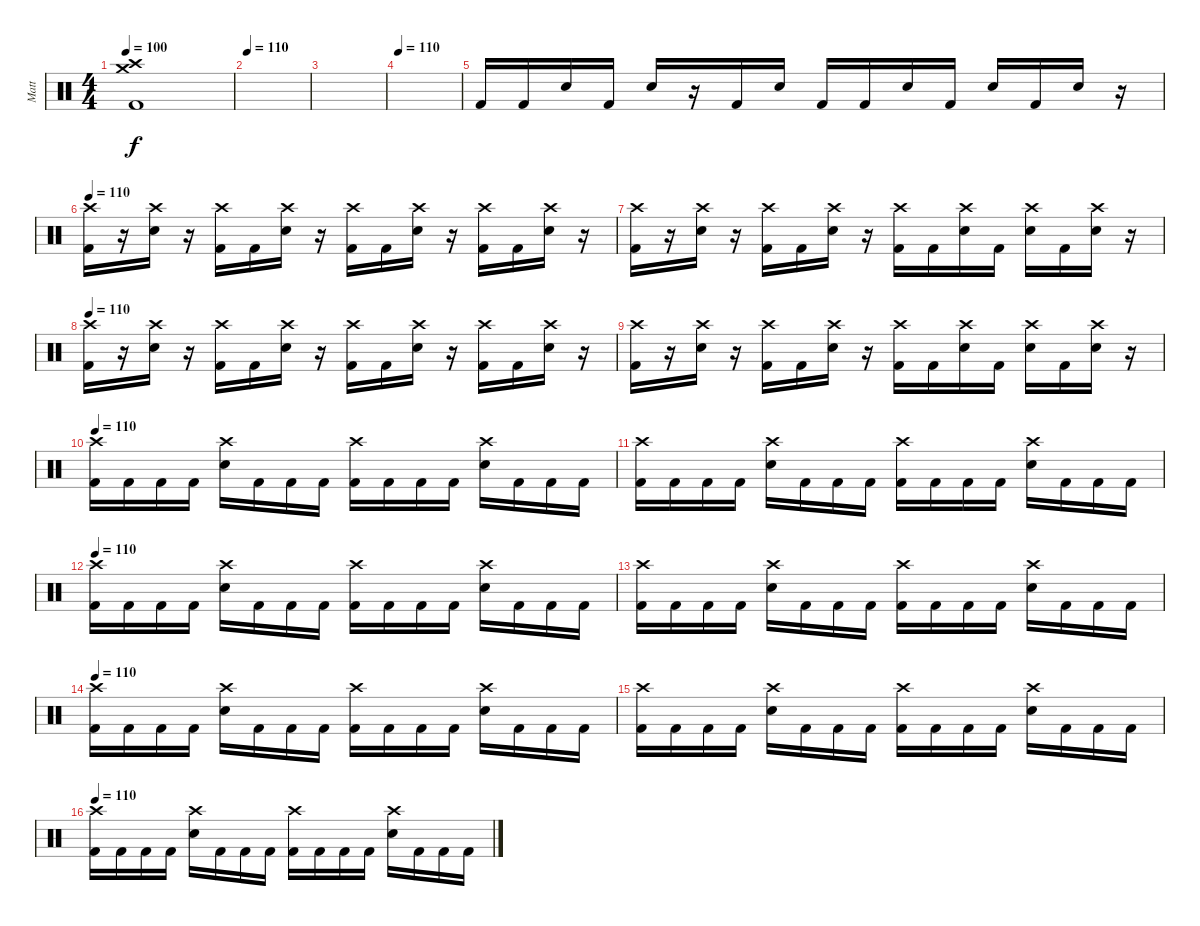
\track ("Matt" "Matt") {instrument percussion}
\staff {score}
\articulation defaults
\ts (4 4)
\tempo 100
\clef neutral
\ks c
("Crash medium (hit)" "Crash high (hit)" "Kick (hit) 2").1{dy f} |
\tempo 110
|
|
\tempo 110
|
"Kick (hit) 2".16 "Kick (hit) 2".16 "Snare (hit) 2".16 "Kick (hit) 2".16 "Snare (hit) 2".16 r.16 "Kick (hit) 2".16 "Snare (hit) 2".16 "Kick (hit) 2".16 "Kick (hit) 2".16 "Snare (hit) 2".16 "Kick (hit) 2".16 "Snare (hit) 2".16 "Kick (hit) 2".16 "Snare (hit) 2".16 r.16 |
\tempo 110
("Crash high (hit)" "Kick (hit) 2").16 r.16 ("Crash high (hit)" "Snare (hit) 2").16 r.16 ("Crash high (hit)" "Kick (hit) 2").16 "Kick (hit) 2".16 ("Crash high (hit)" "Snare (hit) 2").16 r.16 ("Crash high (hit)" "Kick (hit) 2").16 "Kick (hit) 2".16 ("Crash high (hit)" "Snare (hit) 2").16 r.16 ("Crash high (hit)" "Kick (hit) 2").16 "Kick (hit) 2".16 ("Crash high (hit)" "Snare (hit) 2").16 r.16 |
("Crash high (hit)" "Kick (hit) 2").16 r.16 ("Crash high (hit)" "Snare (hit) 2").16 r.16 ("Crash high (hit)" "Kick (hit) 2").16 "Kick (hit) 2".16 ("Crash high (hit)" "Snare (hit) 2").16 r.16 ("Crash high (hit)" "Kick (hit) 2").16 "Kick (hit) 2".16 ("Crash high (hit)" "Snare (hit) 2").16 "Kick (hit) 2".16 ("Crash high (hit)" "Snare (hit) 2").16 "Kick (hit) 2".16 ("Crash high (hit)" "Snare (hit) 2").16 r.16 |
\tempo 110
("Crash high (hit)" "Kick (hit) 2").16 r.16 ("Crash high (hit)" "Snare (hit) 2").16 r.16 ("Crash high (hit)" "Kick (hit) 2").16 "Kick (hit) 2".16 ("Crash high (hit)" "Snare (hit) 2").16 r.16 ("Crash high (hit)" "Kick (hit) 2").16 "Kick (hit) 2".16 ("Crash high (hit)" "Snare (hit) 2").16 r.16 ("Crash high (hit)" "Kick (hit) 2").16 "Kick (hit) 2".16 ("Crash high (hit)" "Snare (hit) 2").16 r.16 |
("Crash high (hit)" "Kick (hit) 2").16 r.16 ("Crash high (hit)" "Snare (hit) 2").16 r.16 ("Crash high (hit)" "Kick (hit) 2").16 "Kick (hit) 2".16 ("Crash high (hit)" "Snare (hit) 2").16 r.16 ("Crash high (hit)" "Kick (hit) 2").16 "Kick (hit) 2".16 ("Crash high (hit)" "Snare (hit) 2").16 "Kick (hit) 2".16 ("Crash high (hit)" "Snare (hit) 2").16 "Kick (hit) 2".16 ("Crash high (hit)" "Snare (hit) 2").16 r.16 |
\tempo 110
("Crash high (hit)" "Kick (hit) 2").16 "Kick (hit) 2".16 "Kick (hit) 2".16 "Kick (hit) 2".16 ("Crash high (hit)" "Snare (hit) 2").16 "Kick (hit) 2".16 "Kick (hit) 2".16 "Kick (hit) 2".16 ("Crash high (hit)" "Kick (hit) 2").16 "Kick (hit) 2".16 "Kick (hit) 2".16 "Kick (hit) 2".16 ("Crash high (hit)" "Snare (hit) 2").16 "Kick (hit) 2".16 "Kick (hit) 2".16 "Kick (hit) 2".16 |
("Crash high (hit)" "Kick (hit) 2").16 "Kick (hit) 2".16 "Kick (hit) 2".16 "Kick (hit) 2".16 ("Crash high (hit)" "Snare (hit) 2").16 "Kick (hit) 2".16 "Kick (hit) 2".16 "Kick (hit) 2".16 ("Crash high (hit)" "Kick (hit) 2").16 "Kick (hit) 2".16 "Kick (hit) 2".16 "Kick (hit) 2".16 ("Crash high (hit)" "Snare (hit) 2").16 "Kick (hit) 2".16 "Kick (hit) 2".16 "Kick (hit) 2".16 |
\tempo 110
("Crash high (hit)" "Kick (hit) 2").16 "Kick (hit) 2".16 "Kick (hit) 2".16 "Kick (hit) 2".16 ("Crash high (hit)" "Snare (hit) 2").16 "Kick (hit) 2".16 "Kick (hit) 2".16 "Kick (hit) 2".16 ("Crash high (hit)" "Kick (hit) 2").16 "Kick (hit) 2".16 "Kick (hit) 2".16 "Kick (hit) 2".16 ("Crash high (hit)" "Snare (hit) 2").16 "Kick (hit) 2".16 "Kick (hit) 2".16 "Kick (hit) 2".16 |
("Crash high (hit)" "Kick (hit) 2").16 "Kick (hit) 2".16 "Kick (hit) 2".16 "Kick (hit) 2".16 ("Crash high (hit)" "Snare (hit) 2").16 "Kick (hit) 2".16 "Kick (hit) 2".16 "Kick (hit) 2".16 ("Crash high (hit)" "Kick (hit) 2").16 "Kick (hit) 2".16 "Kick (hit) 2".16 "Kick (hit) 2".16 ("Crash high (hit)" "Snare (hit) 2").16 "Kick (hit) 2".16 "Kick (hit) 2".16 "Kick (hit) 2".16 |
\tempo 110
("Crash high (hit)" "Kick (hit) 2").16 "Kick (hit) 2".16 "Kick (hit) 2".16 "Kick (hit) 2".16 ("Crash high (hit)" "Snare (hit) 2").16 "Kick (hit) 2".16 "Kick (hit) 2".16 "Kick (hit) 2".16 ("Crash high (hit)" "Kick (hit) 2").16 "Kick (hit) 2".16 "Kick (hit) 2".16 "Kick (hit) 2".16 ("Crash high (hit)" "Snare (hit) 2").16 "Kick (hit) 2".16 "Kick (hit) 2".16 "Kick (hit) 2".16 |
("Crash high (hit)" "Kick (hit) 2").16 "Kick (hit) 2".16 "Kick (hit) 2".16 "Kick (hit) 2".16 ("Crash high (hit)" "Snare (hit) 2").16 "Kick (hit) 2".16 "Kick (hit) 2".16 "Kick (hit) 2".16 ("Crash high (hit)" "Kick (hit) 2").16 "Kick (hit) 2".16 "Kick (hit) 2".16 "Kick (hit) 2".16 ("Crash high (hit)" "Snare (hit) 2").16 "Kick (hit) 2".16 "Kick (hit) 2".16 "Kick (hit) 2".16 |
\tempo 110
("Crash high (hit)" "Kick (hit) 2").16 "Kick (hit) 2".16 "Kick (hit) 2".16 "Kick (hit) 2".16 ("Crash high (hit)" "Snare (hit) 2").16 "Kick (hit) 2".16 "Kick (hit) 2".16 "Kick (hit) 2".16 ("Crash high (hit)" "Kick (hit) 2").16 "Kick (hit) 2".16 "Kick (hit) 2".16 "Kick (hit) 2".16 ("Crash high (hit)" "Snare (hit) 2").16 "Kick (hit) 2".16 "Kick (hit) 2".16 "Kick (hit) 2".16
